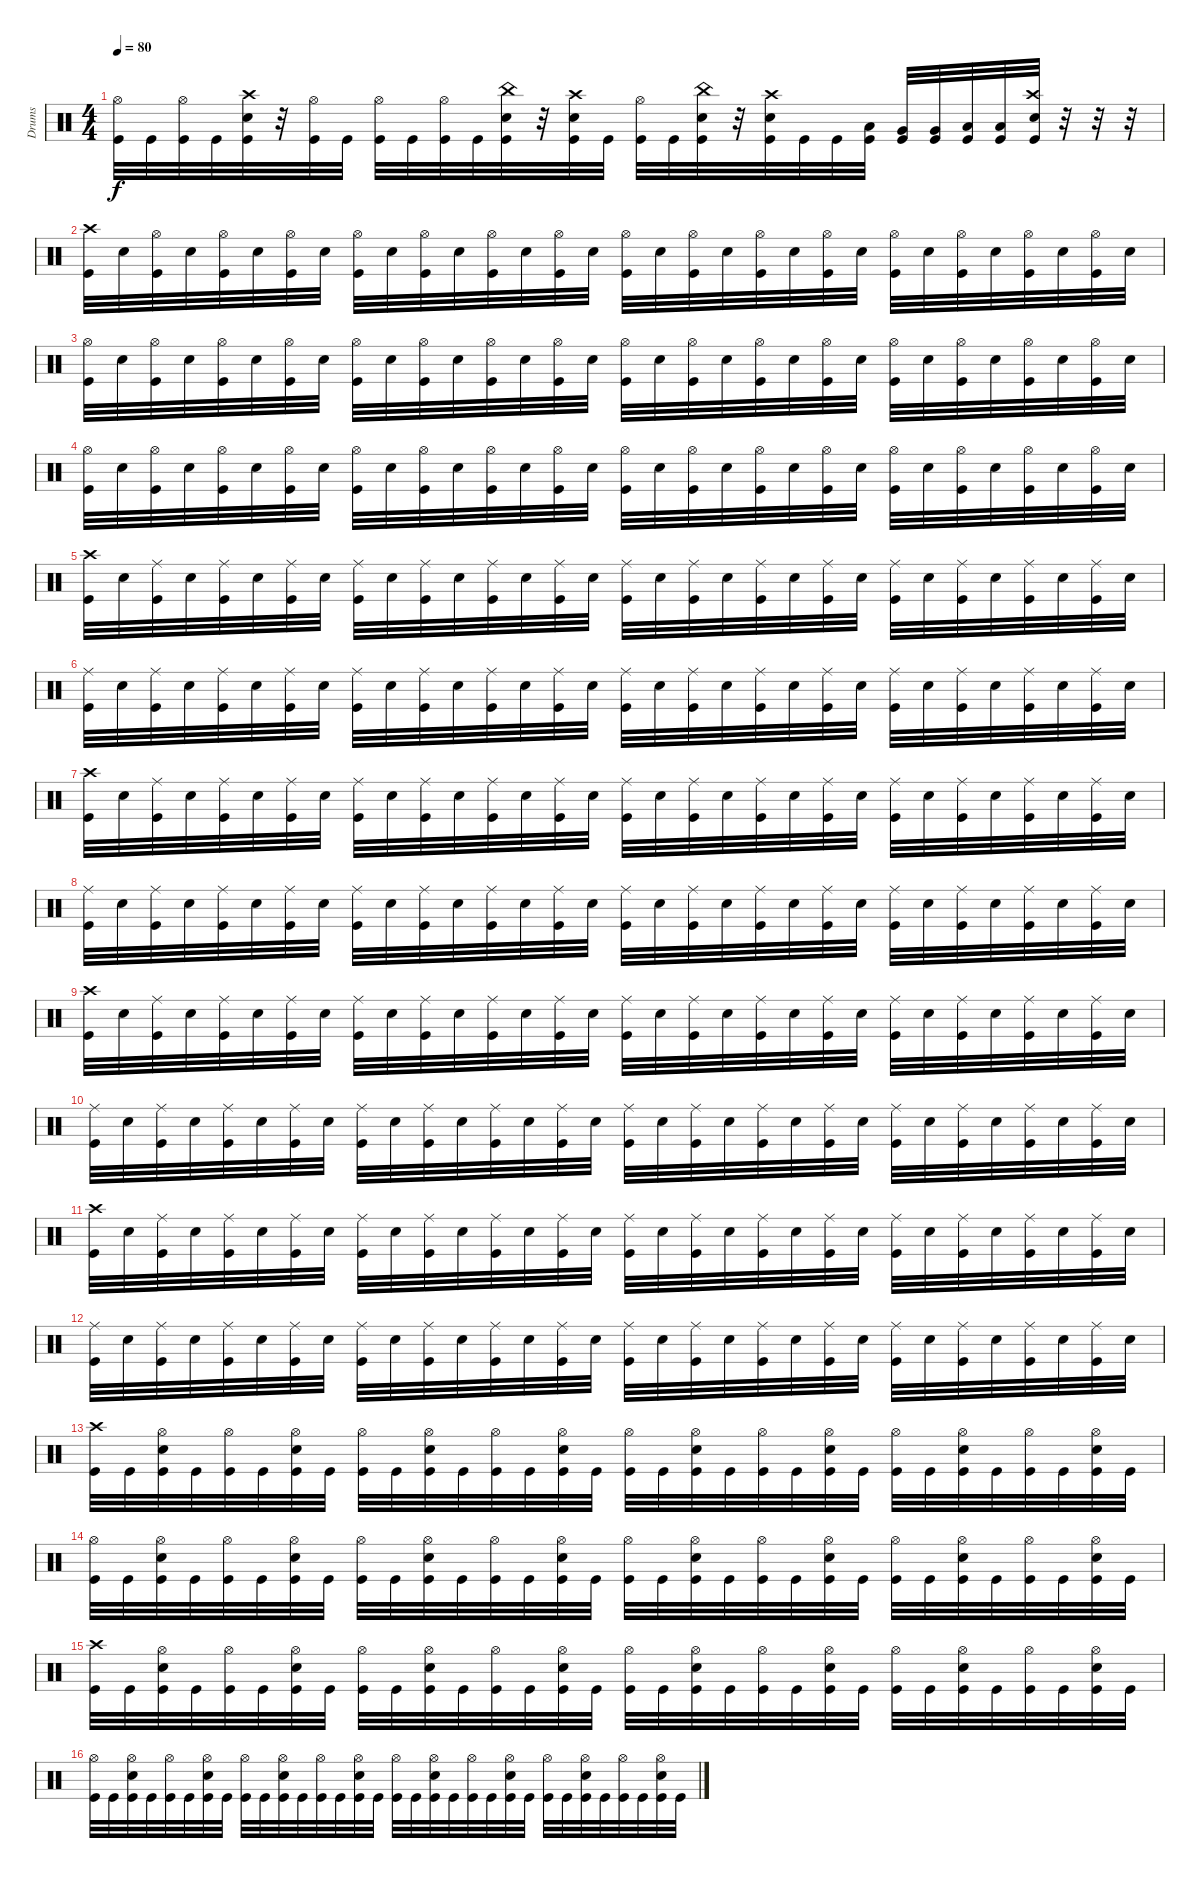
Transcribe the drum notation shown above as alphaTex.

\track ("Drums" "Drums") {instrument percussion}
\staff {score}
\articulation defaults
\ts (4 4)
\tempo 80
\clef neutral
\ks c
("Hi-Hat (open)" "Kick (hit)").32{dy f} "Kick (hit)".32 ("Hi-Hat (open)" "Kick (hit)").32 "Kick (hit)".32 ("Crash high (hit)" "Snare (hit) 2" "Kick (hit)").32 r.32 ("Hi-Hat (open)" "Kick (hit)").32 "Kick (hit)".32 ("Hi-Hat (open)" "Kick (hit)").32 "Kick (hit)".32 ("Hi-Hat (open)" "Kick (hit)").32 "Kick (hit)".32 ("China (hit)" "Snare (hit) 2" "Kick (hit)").32 r.32 ("Crash high (hit)" "Snare (hit) 2" "Kick (hit)").32 "Kick (hit)".32 ("Hi-Hat (open)" "Kick (hit)").32 "Kick (hit)".32 ("China (hit)" "Snare (hit) 2" "Kick (hit)").32 r.32 ("Crash high (hit)" "Snare (hit) 2" "Kick (hit)").32 "Kick (hit)".32 "Kick (hit)".32 ("Low Tom (hit)" "Kick (hit)").32 ("Very Low Tom (hit)" "Kick (hit)").32 ("Very Low Tom (hit)" "Kick (hit)").32 ("Low Floor Tom (hit)" "Kick (hit)").32 ("Low Floor Tom (hit)" "Kick (hit)").32 ("Crash high (hit)" "Snare (hit) 2" "Kick (hit)").32 r.32 r.32 r.32 |
("Crash high (hit)" "Kick (hit)").32 "Snare (hit) 2".32 ("Hi-Hat (open)" "Kick (hit)").32 "Snare (hit) 2".32 ("Hi-Hat (open)" "Kick (hit)").32 "Snare (hit) 2".32 ("Hi-Hat (open)" "Kick (hit)").32 "Snare (hit) 2".32 ("Hi-Hat (open)" "Kick (hit)").32 "Snare (hit) 2".32 ("Hi-Hat (open)" "Kick (hit)").32 "Snare (hit) 2".32 ("Hi-Hat (open)" "Kick (hit)").32 "Snare (hit) 2".32 ("Hi-Hat (open)" "Kick (hit)").32 "Snare (hit) 2".32 ("Hi-Hat (open)" "Kick (hit)").32 "Snare (hit) 2".32 ("Hi-Hat (open)" "Kick (hit)").32 "Snare (hit) 2".32 ("Hi-Hat (open)" "Kick (hit)").32 "Snare (hit) 2".32 ("Hi-Hat (open)" "Kick (hit)").32 "Snare (hit) 2".32 ("Hi-Hat (open)" "Kick (hit)").32 "Snare (hit) 2".32 ("Hi-Hat (open)" "Kick (hit)").32 "Snare (hit) 2".32 ("Hi-Hat (open)" "Kick (hit)").32 "Snare (hit) 2".32 ("Hi-Hat (open)" "Kick (hit)").32 "Snare (hit) 2".32 |
("Hi-Hat (open)" "Kick (hit)").32 "Snare (hit) 2".32 ("Hi-Hat (open)" "Kick (hit)").32 "Snare (hit) 2".32 ("Hi-Hat (open)" "Kick (hit)").32 "Snare (hit) 2".32 ("Hi-Hat (open)" "Kick (hit)").32 "Snare (hit) 2".32 ("Hi-Hat (open)" "Kick (hit)").32 "Snare (hit) 2".32 ("Hi-Hat (open)" "Kick (hit)").32 "Snare (hit) 2".32 ("Hi-Hat (open)" "Kick (hit)").32 "Snare (hit) 2".32 ("Hi-Hat (open)" "Kick (hit)").32 "Snare (hit) 2".32 ("Hi-Hat (open)" "Kick (hit)").32 "Snare (hit) 2".32 ("Hi-Hat (open)" "Kick (hit)").32 "Snare (hit) 2".32 ("Hi-Hat (open)" "Kick (hit)").32 "Snare (hit) 2".32 ("Hi-Hat (open)" "Kick (hit)").32 "Snare (hit) 2".32 ("Hi-Hat (open)" "Kick (hit)").32 "Snare (hit) 2".32 ("Hi-Hat (open)" "Kick (hit)").32 "Snare (hit) 2".32 ("Hi-Hat (open)" "Kick (hit)").32 "Snare (hit) 2".32 ("Hi-Hat (open)" "Kick (hit)").32 "Snare (hit) 2".32 |
("Hi-Hat (open)" "Kick (hit)").32 "Snare (hit) 2".32 ("Hi-Hat (open)" "Kick (hit)").32 "Snare (hit) 2".32 ("Hi-Hat (open)" "Kick (hit)").32 "Snare (hit) 2".32 ("Hi-Hat (open)" "Kick (hit)").32 "Snare (hit) 2".32 ("Hi-Hat (open)" "Kick (hit)").32 "Snare (hit) 2".32 ("Hi-Hat (open)" "Kick (hit)").32 "Snare (hit) 2".32 ("Hi-Hat (open)" "Kick (hit)").32 "Snare (hit) 2".32 ("Hi-Hat (open)" "Kick (hit)").32 "Snare (hit) 2".32 ("Hi-Hat (open)" "Kick (hit)").32 "Snare (hit) 2".32 ("Hi-Hat (open)" "Kick (hit)").32 "Snare (hit) 2".32 ("Hi-Hat (open)" "Kick (hit)").32 "Snare (hit) 2".32 ("Hi-Hat (open)" "Kick (hit)").32 "Snare (hit) 2".32 ("Hi-Hat (open)" "Kick (hit)").32 "Snare (hit) 2".32 ("Hi-Hat (open)" "Kick (hit)").32 "Snare (hit) 2".32 ("Hi-Hat (open)" "Kick (hit)").32 "Snare (hit) 2".32 ("Hi-Hat (open)" "Kick (hit)").32 "Snare (hit) 2".32 |
("Crash high (hit)" "Kick (hit)").32 "Snare (hit) 2".32 ("Ride (middle)" "Kick (hit)").32 "Snare (hit) 2".32 ("Ride (middle)" "Kick (hit)").32 "Snare (hit) 2".32 ("Ride (middle)" "Kick (hit)").32 "Snare (hit) 2".32 ("Ride (middle)" "Kick (hit)").32 "Snare (hit) 2".32 ("Ride (middle)" "Kick (hit)").32 "Snare (hit) 2".32 ("Ride (middle)" "Kick (hit)").32 "Snare (hit) 2".32 ("Ride (middle)" "Kick (hit)").32 "Snare (hit) 2".32 ("Ride (middle)" "Kick (hit)").32 "Snare (hit) 2".32 ("Ride (middle)" "Kick (hit)").32 "Snare (hit) 2".32 ("Ride (middle)" "Kick (hit)").32 "Snare (hit) 2".32 ("Ride (middle)" "Kick (hit)").32 "Snare (hit) 2".32 ("Ride (middle)" "Kick (hit)").32 "Snare (hit) 2".32 ("Ride (middle)" "Kick (hit)").32 "Snare (hit) 2".32 ("Ride (middle)" "Kick (hit)").32 "Snare (hit) 2".32 ("Ride (middle)" "Kick (hit)").32 "Snare (hit) 2".32 |
("Ride (middle)" "Kick (hit)").32 "Snare (hit) 2".32 ("Ride (middle)" "Kick (hit)").32 "Snare (hit) 2".32 ("Ride (middle)" "Kick (hit)").32 "Snare (hit) 2".32 ("Ride (middle)" "Kick (hit)").32 "Snare (hit) 2".32 ("Ride (middle)" "Kick (hit)").32 "Snare (hit) 2".32 ("Ride (middle)" "Kick (hit)").32 "Snare (hit) 2".32 ("Ride (middle)" "Kick (hit)").32 "Snare (hit) 2".32 ("Ride (middle)" "Kick (hit)").32 "Snare (hit) 2".32 ("Ride (middle)" "Kick (hit)").32 "Snare (hit) 2".32 ("Ride (middle)" "Kick (hit)").32 "Snare (hit) 2".32 ("Ride (middle)" "Kick (hit)").32 "Snare (hit) 2".32 ("Ride (middle)" "Kick (hit)").32 "Snare (hit) 2".32 ("Ride (middle)" "Kick (hit)").32 "Snare (hit) 2".32 ("Ride (middle)" "Kick (hit)").32 "Snare (hit) 2".32 ("Ride (middle)" "Kick (hit)").32 "Snare (hit) 2".32 ("Ride (middle)" "Kick (hit)").32 "Snare (hit) 2".32 |
("Crash high (hit)" "Kick (hit)").32 "Snare (hit) 2".32 ("Ride (middle)" "Kick (hit)").32 "Snare (hit) 2".32 ("Ride (middle)" "Kick (hit)").32 "Snare (hit) 2".32 ("Ride (middle)" "Kick (hit)").32 "Snare (hit) 2".32 ("Ride (middle)" "Kick (hit)").32 "Snare (hit) 2".32 ("Ride (middle)" "Kick (hit)").32 "Snare (hit) 2".32 ("Ride (middle)" "Kick (hit)").32 "Snare (hit) 2".32 ("Ride (middle)" "Kick (hit)").32 "Snare (hit) 2".32 ("Ride (middle)" "Kick (hit)").32 "Snare (hit) 2".32 ("Ride (middle)" "Kick (hit)").32 "Snare (hit) 2".32 ("Ride (middle)" "Kick (hit)").32 "Snare (hit) 2".32 ("Ride (middle)" "Kick (hit)").32 "Snare (hit) 2".32 ("Ride (middle)" "Kick (hit)").32 "Snare (hit) 2".32 ("Ride (middle)" "Kick (hit)").32 "Snare (hit) 2".32 ("Ride (middle)" "Kick (hit)").32 "Snare (hit) 2".32 ("Ride (middle)" "Kick (hit)").32 "Snare (hit) 2".32 |
("Ride (middle)" "Kick (hit)").32 "Snare (hit) 2".32 ("Ride (middle)" "Kick (hit)").32 "Snare (hit) 2".32 ("Ride (middle)" "Kick (hit)").32 "Snare (hit) 2".32 ("Ride (middle)" "Kick (hit)").32 "Snare (hit) 2".32 ("Ride (middle)" "Kick (hit)").32 "Snare (hit) 2".32 ("Ride (middle)" "Kick (hit)").32 "Snare (hit) 2".32 ("Ride (middle)" "Kick (hit)").32 "Snare (hit) 2".32 ("Ride (middle)" "Kick (hit)").32 "Snare (hit) 2".32 ("Ride (middle)" "Kick (hit)").32 "Snare (hit) 2".32 ("Ride (middle)" "Kick (hit)").32 "Snare (hit) 2".32 ("Ride (middle)" "Kick (hit)").32 "Snare (hit) 2".32 ("Ride (middle)" "Kick (hit)").32 "Snare (hit) 2".32 ("Ride (middle)" "Kick (hit)").32 "Snare (hit) 2".32 ("Ride (middle)" "Kick (hit)").32 "Snare (hit) 2".32 ("Ride (middle)" "Kick (hit)").32 "Snare (hit) 2".32 ("Ride (middle)" "Kick (hit)").32 "Snare (hit) 2".32 |
("Crash high (hit)" "Kick (hit)").32 "Snare (hit) 2".32 ("Ride (middle)" "Kick (hit)").32 "Snare (hit) 2".32 ("Ride (middle)" "Kick (hit)").32 "Snare (hit) 2".32 ("Ride (middle)" "Kick (hit)").32 "Snare (hit) 2".32 ("Ride (middle)" "Kick (hit)").32 "Snare (hit) 2".32 ("Ride (middle)" "Kick (hit)").32 "Snare (hit) 2".32 ("Ride (middle)" "Kick (hit)").32 "Snare (hit) 2".32 ("Ride (middle)" "Kick (hit)").32 "Snare (hit) 2".32 ("Ride (middle)" "Kick (hit)").32 "Snare (hit) 2".32 ("Ride (middle)" "Kick (hit)").32 "Snare (hit) 2".32 ("Ride (middle)" "Kick (hit)").32 "Snare (hit) 2".32 ("Ride (middle)" "Kick (hit)").32 "Snare (hit) 2".32 ("Ride (middle)" "Kick (hit)").32 "Snare (hit) 2".32 ("Ride (middle)" "Kick (hit)").32 "Snare (hit) 2".32 ("Ride (middle)" "Kick (hit)").32 "Snare (hit) 2".32 ("Ride (middle)" "Kick (hit)").32 "Snare (hit) 2".32 |
("Ride (middle)" "Kick (hit)").32 "Snare (hit) 2".32 ("Ride (middle)" "Kick (hit)").32 "Snare (hit) 2".32 ("Ride (middle)" "Kick (hit)").32 "Snare (hit) 2".32 ("Ride (middle)" "Kick (hit)").32 "Snare (hit) 2".32 ("Ride (middle)" "Kick (hit)").32 "Snare (hit) 2".32 ("Ride (middle)" "Kick (hit)").32 "Snare (hit) 2".32 ("Ride (middle)" "Kick (hit)").32 "Snare (hit) 2".32 ("Ride (middle)" "Kick (hit)").32 "Snare (hit) 2".32 ("Ride (middle)" "Kick (hit)").32 "Snare (hit) 2".32 ("Ride (middle)" "Kick (hit)").32 "Snare (hit) 2".32 ("Ride (middle)" "Kick (hit)").32 "Snare (hit) 2".32 ("Ride (middle)" "Kick (hit)").32 "Snare (hit) 2".32 ("Ride (middle)" "Kick (hit)").32 "Snare (hit) 2".32 ("Ride (middle)" "Kick (hit)").32 "Snare (hit) 2".32 ("Ride (middle)" "Kick (hit)").32 "Snare (hit) 2".32 ("Ride (middle)" "Kick (hit)").32 "Snare (hit) 2".32 |
("Crash high (hit)" "Kick (hit)").32 "Snare (hit) 2".32 ("Ride (middle)" "Kick (hit)").32 "Snare (hit) 2".32 ("Ride (middle)" "Kick (hit)").32 "Snare (hit) 2".32 ("Ride (middle)" "Kick (hit)").32 "Snare (hit) 2".32 ("Ride (middle)" "Kick (hit)").32 "Snare (hit) 2".32 ("Ride (middle)" "Kick (hit)").32 "Snare (hit) 2".32 ("Ride (middle)" "Kick (hit)").32 "Snare (hit) 2".32 ("Ride (middle)" "Kick (hit)").32 "Snare (hit) 2".32 ("Ride (middle)" "Kick (hit)").32 "Snare (hit) 2".32 ("Ride (middle)" "Kick (hit)").32 "Snare (hit) 2".32 ("Ride (middle)" "Kick (hit)").32 "Snare (hit) 2".32 ("Ride (middle)" "Kick (hit)").32 "Snare (hit) 2".32 ("Ride (middle)" "Kick (hit)").32 "Snare (hit) 2".32 ("Ride (middle)" "Kick (hit)").32 "Snare (hit) 2".32 ("Ride (middle)" "Kick (hit)").32 "Snare (hit) 2".32 ("Ride (middle)" "Kick (hit)").32 "Snare (hit) 2".32 |
("Ride (middle)" "Kick (hit)").32 "Snare (hit) 2".32 ("Ride (middle)" "Kick (hit)").32 "Snare (hit) 2".32 ("Ride (middle)" "Kick (hit)").32 "Snare (hit) 2".32 ("Ride (middle)" "Kick (hit)").32 "Snare (hit) 2".32 ("Ride (middle)" "Kick (hit)").32 "Snare (hit) 2".32 ("Ride (middle)" "Kick (hit)").32 "Snare (hit) 2".32 ("Ride (middle)" "Kick (hit)").32 "Snare (hit) 2".32 ("Ride (middle)" "Kick (hit)").32 "Snare (hit) 2".32 ("Ride (middle)" "Kick (hit)").32 "Snare (hit) 2".32 ("Ride (middle)" "Kick (hit)").32 "Snare (hit) 2".32 ("Ride (middle)" "Kick (hit)").32 "Snare (hit) 2".32 ("Ride (middle)" "Kick (hit)").32 "Snare (hit) 2".32 ("Ride (middle)" "Kick (hit)").32 "Snare (hit) 2".32 ("Ride (middle)" "Kick (hit)").32 "Snare (hit) 2".32 ("Ride (middle)" "Kick (hit)").32 "Snare (hit) 2".32 ("Ride (middle)" "Kick (hit)").32 "Snare (hit) 2".32 |
("Crash high (hit)" "Kick (hit)").32 "Kick (hit)".32 ("Hi-Hat (open)" "Snare (hit) 2" "Kick (hit)").32 "Kick (hit)".32 ("Hi-Hat (open)" "Kick (hit)").32 "Kick (hit)".32 ("Hi-Hat (open)" "Snare (hit) 2" "Kick (hit)").32 "Kick (hit)".32 ("Hi-Hat (open)" "Kick (hit)").32 "Kick (hit)".32 ("Hi-Hat (open)" "Snare (hit) 2" "Kick (hit)").32 "Kick (hit)".32 ("Hi-Hat (open)" "Kick (hit)").32 "Kick (hit)".32 ("Hi-Hat (open)" "Snare (hit) 2" "Kick (hit)").32 "Kick (hit)".32 ("Hi-Hat (open)" "Kick (hit)").32 "Kick (hit)".32 ("Hi-Hat (open)" "Snare (hit) 2" "Kick (hit)").32 "Kick (hit)".32 ("Hi-Hat (open)" "Kick (hit)").32 "Kick (hit)".32 ("Hi-Hat (open)" "Snare (hit) 2" "Kick (hit)").32 "Kick (hit)".32 ("Hi-Hat (open)" "Kick (hit)").32 "Kick (hit)".32 ("Hi-Hat (open)" "Snare (hit) 2" "Kick (hit)").32 "Kick (hit)".32 ("Hi-Hat (open)" "Kick (hit)").32 "Kick (hit)".32 ("Hi-Hat (open)" "Snare (hit) 2" "Kick (hit)").32 "Kick (hit)".32 |
("Hi-Hat (open)" "Kick (hit)").32 "Kick (hit)".32 ("Hi-Hat (open)" "Snare (hit) 2" "Kick (hit)").32 "Kick (hit)".32 ("Hi-Hat (open)" "Kick (hit)").32 "Kick (hit)".32 ("Hi-Hat (open)" "Snare (hit) 2" "Kick (hit)").32 "Kick (hit)".32 ("Hi-Hat (open)" "Kick (hit)").32 "Kick (hit)".32 ("Hi-Hat (open)" "Snare (hit) 2" "Kick (hit)").32 "Kick (hit)".32 ("Hi-Hat (open)" "Kick (hit)").32 "Kick (hit)".32 ("Hi-Hat (open)" "Snare (hit) 2" "Kick (hit)").32 "Kick (hit)".32 ("Hi-Hat (open)" "Kick (hit)").32 "Kick (hit)".32 ("Hi-Hat (open)" "Snare (hit) 2" "Kick (hit)").32 "Kick (hit)".32 ("Hi-Hat (open)" "Kick (hit)").32 "Kick (hit)".32 ("Hi-Hat (open)" "Snare (hit) 2" "Kick (hit)").32 "Kick (hit)".32 ("Hi-Hat (open)" "Kick (hit)").32 "Kick (hit)".32 ("Hi-Hat (open)" "Snare (hit) 2" "Kick (hit)").32 "Kick (hit)".32 ("Hi-Hat (open)" "Kick (hit)").32 "Kick (hit)".32 ("Hi-Hat (open)" "Snare (hit) 2" "Kick (hit)").32 "Kick (hit)".32 |
("Crash high (hit)" "Kick (hit)").32 "Kick (hit)".32 ("Hi-Hat (open)" "Snare (hit) 2" "Kick (hit)").32 "Kick (hit)".32 ("Hi-Hat (open)" "Kick (hit)").32 "Kick (hit)".32 ("Hi-Hat (open)" "Snare (hit) 2" "Kick (hit)").32 "Kick (hit)".32 ("Hi-Hat (open)" "Kick (hit)").32 "Kick (hit)".32 ("Hi-Hat (open)" "Snare (hit) 2" "Kick (hit)").32 "Kick (hit)".32 ("Hi-Hat (open)" "Kick (hit)").32 "Kick (hit)".32 ("Hi-Hat (open)" "Snare (hit) 2" "Kick (hit)").32 "Kick (hit)".32 ("Hi-Hat (open)" "Kick (hit)").32 "Kick (hit)".32 ("Hi-Hat (open)" "Snare (hit) 2" "Kick (hit)").32 "Kick (hit)".32 ("Hi-Hat (open)" "Kick (hit)").32 "Kick (hit)".32 ("Hi-Hat (open)" "Snare (hit) 2" "Kick (hit)").32 "Kick (hit)".32 ("Hi-Hat (open)" "Kick (hit)").32 "Kick (hit)".32 ("Hi-Hat (open)" "Snare (hit) 2" "Kick (hit)").32 "Kick (hit)".32 ("Hi-Hat (open)" "Kick (hit)").32 "Kick (hit)".32 ("Hi-Hat (open)" "Snare (hit) 2" "Kick (hit)").32 "Kick (hit)".32 |
("Hi-Hat (open)" "Kick (hit)").32 "Kick (hit)".32 ("Hi-Hat (open)" "Snare (hit) 2" "Kick (hit)").32 "Kick (hit)".32 ("Hi-Hat (open)" "Kick (hit)").32 "Kick (hit)".32 ("Hi-Hat (open)" "Snare (hit) 2" "Kick (hit)").32 "Kick (hit)".32 ("Hi-Hat (open)" "Kick (hit)").32 "Kick (hit)".32 ("Hi-Hat (open)" "Snare (hit) 2" "Kick (hit)").32 "Kick (hit)".32 ("Hi-Hat (open)" "Kick (hit)").32 "Kick (hit)".32 ("Hi-Hat (open)" "Snare (hit) 2" "Kick (hit)").32 "Kick (hit)".32 ("Hi-Hat (open)" "Kick (hit)").32 "Kick (hit)".32 ("Hi-Hat (open)" "Snare (hit) 2" "Kick (hit)").32 "Kick (hit)".32 ("Hi-Hat (open)" "Kick (hit)").32 "Kick (hit)".32 ("Hi-Hat (open)" "Snare (hit) 2" "Kick (hit)").32 "Kick (hit)".32 ("Hi-Hat (open)" "Kick (hit)").32 "Kick (hit)".32 ("Hi-Hat (open)" "Snare (hit) 2" "Kick (hit)").32 "Kick (hit)".32 ("Hi-Hat (open)" "Kick (hit)").32 "Kick (hit)".32 ("Hi-Hat (open)" "Snare (hit) 2" "Kick (hit)").32 "Kick (hit)".32
